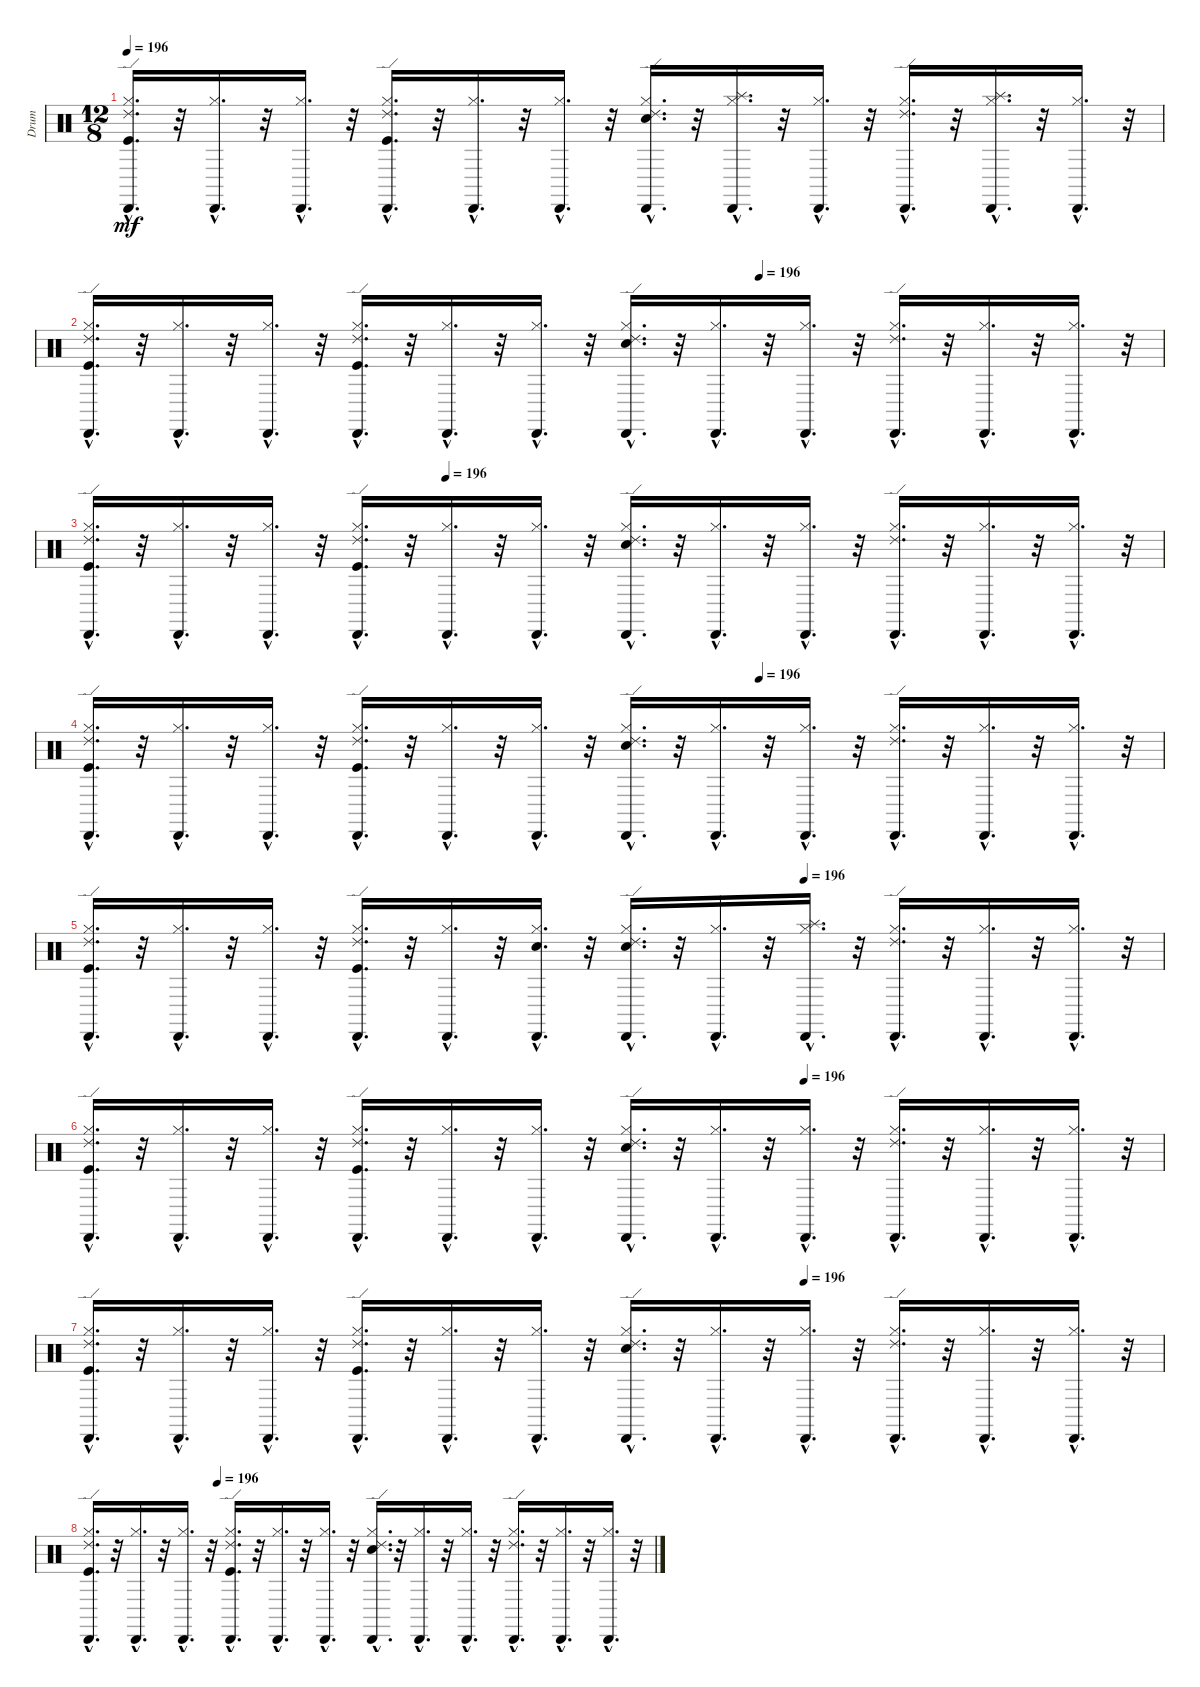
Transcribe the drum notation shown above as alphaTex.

\track ("Drum" "Drum") {instrument percussion}
\staff {score}
\articulation defaults
\ts (12 8)
\tempo 196
\clef neutral
\ks c
("Hi-Hat (closed)"{hac} "Kick (hit)"{hac} "Cabasa (hit)"{hac} "Ride (edge) 2"{hac}).16{d dy mf} r.32 ("Hi-Hat (closed)"{hac} "Cabasa (hit)"{hac}).16{d} r.32 ("Hi-Hat (closed)"{hac} "Cabasa (hit)"{hac}).16{d} r.32 ("Hi-Hat (closed)"{hac} "Kick (hit)"{hac} "Cabasa (hit)"{hac} "Ride (edge) 2"{hac}).16{d} r.32 ("Hi-Hat (closed)"{hac} "Cabasa (hit)"{hac}).16{d} r.32 ("Hi-Hat (closed)"{hac} "Cabasa (hit)"{hac}).16{d} r.32 ("Hi-Hat (closed)"{hac} "Snare (hit) 2"{hac} "Cabasa (hit)"{hac} "Ride (edge) 2"{hac}).16{d} r.32 ("Hi-Hat (closed)"{hac} "Cabasa (hit)"{hac} "Splash (hit)"{hac}).16{d} r.32 ("Hi-Hat (closed)"{hac} "Cabasa (hit)"{hac}).16{d} r.32 ("Hi-Hat (closed)"{hac} "Cabasa (hit)"{hac} "Ride (edge) 2"{hac}).16{d} r.32 ("Hi-Hat (closed)"{hac} "Cabasa (hit)"{hac} "Splash (hit)"{hac}).16{d} r.32 ("Hi-Hat (closed)"{hac} "Cabasa (hit)"{hac}).16{d} r.32 |
\tempo (196 0.625)
("Hi-Hat (closed)"{hac} "Kick (hit)"{hac} "Cabasa (hit)"{hac} "Ride (edge) 2"{hac}).16{d} r.32 ("Hi-Hat (closed)"{hac} "Cabasa (hit)"{hac}).16{d} r.32 ("Hi-Hat (closed)"{hac} "Cabasa (hit)"{hac}).16{d} r.32 ("Ride (edge) 2"{hac} "Cabasa (hit)"{hac} "Kick (hit)"{hac} "Hi-Hat (closed)"{hac}).16{d} r.32 ("Hi-Hat (closed)"{hac} "Cabasa (hit)"{hac}).16{d} r.32 ("Cabasa (hit)"{hac} "Hi-Hat (closed)"{hac}).16{d} r.32 ("Hi-Hat (closed)"{hac} "Cabasa (hit)"{hac} "Ride (edge) 2"{hac} "Snare (hit) 2"{hac}).16{d} r.32 ("Hi-Hat (closed)"{hac} "Cabasa (hit)"{hac}).16{d} r.32 ("Cabasa (hit)"{hac} "Hi-Hat (closed)"{hac}).16{d} r.32 ("Hi-Hat (closed)"{hac} "Cabasa (hit)"{hac} "Ride (edge) 2"{hac}).16{d} r.32 ("Hi-Hat (closed)"{hac} "Cabasa (hit)"{hac}).16{d} r.32 ("Hi-Hat (closed)"{hac} "Cabasa (hit)"{hac}).16{d} r.32 |
\tempo (196 0.3333333333333333)
("Ride (edge) 2"{hac} "Cabasa (hit)"{hac} "Kick (hit)"{hac} "Hi-Hat (closed)"{hac}).16{d} r.32 ("Cabasa (hit)"{hac} "Hi-Hat (closed)"{hac}).16{d} r.32 ("Cabasa (hit)"{hac} "Hi-Hat (closed)"{hac}).16{d} r.32 ("Ride (edge) 2"{hac} "Cabasa (hit)"{hac} "Kick (hit)"{hac} "Hi-Hat (closed)"{hac}).16{d} r.32 ("Cabasa (hit)"{hac} "Hi-Hat (closed)"{hac}).16{d} r.32 ("Cabasa (hit)"{hac} "Hi-Hat (closed)"{hac}).16{d} r.32 ("Ride (edge) 2"{hac} "Cabasa (hit)"{hac} "Snare (hit) 2"{hac} "Hi-Hat (closed)"{hac}).16{d} r.32 ("Cabasa (hit)"{hac} "Hi-Hat (closed)"{hac}).16{d} r.32 ("Cabasa (hit)"{hac} "Hi-Hat (closed)"{hac}).16{d} r.32 ("Ride (edge) 2"{hac} "Cabasa (hit)"{hac} "Hi-Hat (closed)"{hac}).16{d} r.32 ("Cabasa (hit)"{hac} "Hi-Hat (closed)"{hac}).16{d} r.32 ("Cabasa (hit)"{hac} "Hi-Hat (closed)"{hac}).16{d} r.32 |
\tempo (196 0.625)
("Hi-Hat (closed)"{hac} "Kick (hit)"{hac} "Cabasa (hit)"{hac} "Ride (edge) 2"{hac}).16{d} r.32 ("Hi-Hat (closed)"{hac} "Cabasa (hit)"{hac}).16{d} r.32 ("Hi-Hat (closed)"{hac} "Cabasa (hit)"{hac}).16{d} r.32 ("Hi-Hat (closed)"{hac} "Kick (hit)"{hac} "Cabasa (hit)"{hac} "Ride (edge) 2"{hac}).16{d} r.32 ("Hi-Hat (closed)"{hac} "Cabasa (hit)"{hac}).16{d} r.32 ("Hi-Hat (closed)"{hac} "Cabasa (hit)"{hac}).16{d} r.32 ("Hi-Hat (closed)"{hac} "Snare (hit) 2"{hac} "Cabasa (hit)"{hac} "Ride (edge) 2"{hac}).16{d} r.32 ("Hi-Hat (closed)"{hac} "Cabasa (hit)"{hac}).16{d} r.32 ("Hi-Hat (closed)"{hac} "Cabasa (hit)"{hac}).16{d} r.32 ("Hi-Hat (closed)"{hac} "Cabasa (hit)"{hac} "Ride (edge) 2"{hac}).16{d} r.32 ("Hi-Hat (closed)"{hac} "Cabasa (hit)"{hac}).16{d} r.32 ("Hi-Hat (closed)"{hac} "Cabasa (hit)"{hac}).16{d} r.32 |
\tempo (196 0.6666666666666666)
("Hi-Hat (closed)"{hac} "Kick (hit)"{hac} "Cabasa (hit)"{hac} "Ride (edge) 2"{hac}).16{d} r.32 ("Hi-Hat (closed)"{hac} "Cabasa (hit)"{hac}).16{d} r.32 ("Hi-Hat (closed)"{hac} "Cabasa (hit)"{hac}).16{d} r.32 ("Hi-Hat (closed)"{hac} "Kick (hit)"{hac} "Cabasa (hit)"{hac} "Ride (edge) 2"{hac}).16{d} r.32 ("Hi-Hat (closed)"{hac} "Cabasa (hit)"{hac}).16{d} r.32 ("Snare (hit) 2"{hac} "Hi-Hat (closed)"{hac} "Cabasa (hit)"{hac}).16{d} r.32 ("Hi-Hat (closed)"{hac} "Snare (hit) 2"{hac} "Cabasa (hit)"{hac} "Ride (edge) 2"{hac}).16{d} r.32 ("Hi-Hat (closed)"{hac} "Cabasa (hit)"{hac}).16{d} r.32 ("Splash (hit)"{hac} "Hi-Hat (closed)"{hac} "Cabasa (hit)"{hac}).16{d} r.32 ("Hi-Hat (closed)"{hac} "Cabasa (hit)"{hac} "Ride (edge) 2"{hac}).16{d} r.32 ("Hi-Hat (closed)"{hac} "Cabasa (hit)"{hac}).16{d} r.32 ("Hi-Hat (closed)"{hac} "Cabasa (hit)"{hac}).16{d} r.32 |
\tempo (196 0.6666666666666666)
("Cabasa (hit)"{hac} "Hi-Hat (closed)"{hac} "Kick (hit)"{hac} "Ride (edge) 2"{hac}).16{d} r.32 ("Hi-Hat (closed)"{hac} "Cabasa (hit)"{hac}).16{d} r.32 ("Cabasa (hit)"{hac} "Hi-Hat (closed)"{hac}).16{d} r.32 ("Cabasa (hit)"{hac} "Hi-Hat (closed)"{hac} "Kick (hit)"{hac} "Ride (edge) 2"{hac}).16{d} r.32 ("Hi-Hat (closed)"{hac} "Cabasa (hit)"{hac}).16{d} r.32 ("Hi-Hat (closed)"{hac} "Cabasa (hit)"{hac}).16{d} r.32 ("Cabasa (hit)"{hac} "Hi-Hat (closed)"{hac} "Snare (hit) 2"{hac} "Ride (edge) 2"{hac}).16{d} r.32 ("Hi-Hat (closed)"{hac} "Cabasa (hit)"{hac}).16{d} r.32 ("Cabasa (hit)"{hac} "Hi-Hat (closed)"{hac}).16{d} r.32 ("Ride (edge) 2"{hac} "Cabasa (hit)"{hac} "Hi-Hat (closed)"{hac}).16{d} r.32 ("Hi-Hat (closed)"{hac} "Cabasa (hit)"{hac}).16{d} r.32 ("Hi-Hat (closed)"{hac} "Cabasa (hit)"{hac}).16{d} r.32 |
\tempo (196 0.6666666666666666)
("Cabasa (hit)"{hac} "Kick (hit)"{hac} "Ride (edge) 2"{hac} "Hi-Hat (closed)"{hac}).16{d} r.32 ("Hi-Hat (closed)"{hac} "Cabasa (hit)"{hac}).16{d} r.32 ("Cabasa (hit)"{hac} "Hi-Hat (closed)"{hac}).16{d} r.32 ("Hi-Hat (closed)"{hac} "Ride (edge) 2"{hac} "Kick (hit)"{hac} "Cabasa (hit)"{hac}).16{d} r.32 ("Cabasa (hit)"{hac} "Hi-Hat (closed)"{hac}).16{d} r.32 ("Hi-Hat (closed)"{hac} "Cabasa (hit)"{hac}).16{d} r.32 ("Snare (hit) 2"{hac} "Ride (edge) 2"{hac} "Cabasa (hit)"{hac} "Hi-Hat (closed)"{hac}).16{d} r.32 ("Cabasa (hit)"{hac} "Hi-Hat (closed)"{hac}).16{d} r.32 ("Cabasa (hit)"{hac} "Hi-Hat (closed)"{hac}).16{d} r.32 ("Ride (edge) 2"{hac} "Cabasa (hit)"{hac} "Hi-Hat (closed)"{hac}).16{d} r.32 ("Cabasa (hit)"{hac} "Hi-Hat (closed)"{hac}).16{d} r.32 ("Hi-Hat (closed)"{hac} "Cabasa (hit)"{hac}).16{d} r.32 |
\tempo (196 0.22916666666666666)
("Hi-Hat (closed)"{hac} "Kick (hit)"{hac} "Cabasa (hit)"{hac} "Ride (edge) 2"{hac}).16{d} r.32 ("Hi-Hat (closed)"{hac} "Cabasa (hit)"{hac}).16{d} r.32 ("Hi-Hat (closed)"{hac} "Cabasa (hit)"{hac}).16{d} r.32 ("Hi-Hat (closed)"{hac} "Kick (hit)"{hac} "Cabasa (hit)"{hac} "Ride (edge) 2"{hac}).16{d} r.32 ("Hi-Hat (closed)"{hac} "Cabasa (hit)"{hac}).16{d} r.32 ("Hi-Hat (closed)"{hac} "Cabasa (hit)"{hac}).16{d} r.32 ("Hi-Hat (closed)"{hac} "Snare (hit) 2"{hac} "Cabasa (hit)"{hac} "Ride (edge) 2"{hac}).16{d} r.32 ("Hi-Hat (closed)"{hac} "Cabasa (hit)"{hac}).16{d} r.32 ("Hi-Hat (closed)"{hac} "Cabasa (hit)"{hac}).16{d} r.32 ("Hi-Hat (closed)"{hac} "Cabasa (hit)"{hac} "Ride (edge) 2"{hac}).16{d} r.32 ("Hi-Hat (closed)"{hac} "Cabasa (hit)"{hac}).16{d} r.32 ("Hi-Hat (closed)"{hac} "Cabasa (hit)"{hac}).16{d} r.32
